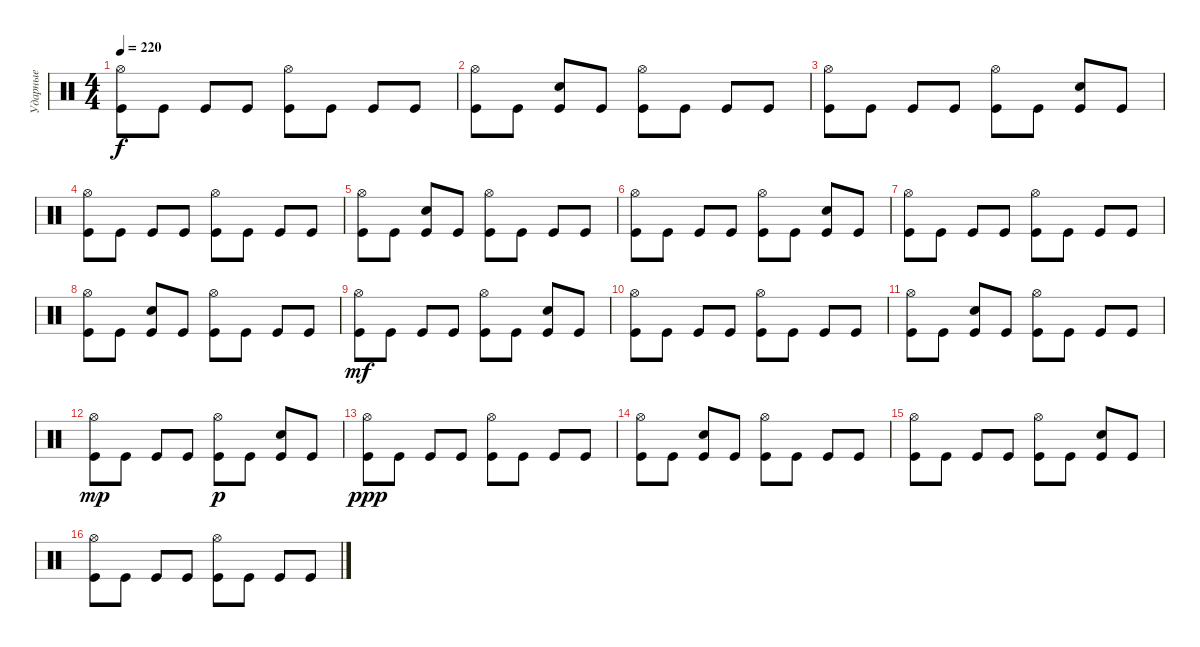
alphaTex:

\track ("Ударные" "Ударные") {instrument percussion}
\staff {score}
\articulation defaults
\ts (4 4)
\tempo 220
\clef neutral
\ks c
("Hi-Hat (open)" "Kick (hit)").8{dy f} "Kick (hit)".8 "Kick (hit)".8 "Kick (hit)".8 ("Hi-Hat (open)" "Kick (hit)").8 "Kick (hit)".8 "Kick (hit)".8 "Kick (hit)".8 |
("Hi-Hat (open)" "Kick (hit)").8 "Kick (hit)".8 ("Electric Snare (hit)" "Kick (hit)").8 "Kick (hit)".8 ("Hi-Hat (open)" "Kick (hit)").8 "Kick (hit)".8 "Kick (hit)".8 "Kick (hit)".8 |
("Hi-Hat (open)" "Kick (hit)").8 "Kick (hit)".8 "Kick (hit)".8 "Kick (hit)".8 ("Hi-Hat (open)" "Kick (hit)").8 "Kick (hit)".8 ("Electric Snare (hit)" "Kick (hit)").8 "Kick (hit)".8 |
("Hi-Hat (open)" "Kick (hit)").8 "Kick (hit)".8 "Kick (hit)".8 "Kick (hit)".8 ("Hi-Hat (open)" "Kick (hit)").8 "Kick (hit)".8 "Kick (hit)".8 "Kick (hit)".8 |
("Hi-Hat (open)" "Kick (hit)").8 "Kick (hit)".8 ("Electric Snare (hit)" "Kick (hit)").8 "Kick (hit)".8 ("Hi-Hat (open)" "Kick (hit)").8 "Kick (hit)".8 "Kick (hit)".8 "Kick (hit)".8 |
("Hi-Hat (open)" "Kick (hit)").8 "Kick (hit)".8 "Kick (hit)".8 "Kick (hit)".8 ("Hi-Hat (open)" "Kick (hit)").8 "Kick (hit)".8 ("Electric Snare (hit)" "Kick (hit)").8 "Kick (hit)".8 |
("Hi-Hat (open)" "Kick (hit)").8 "Kick (hit)".8 "Kick (hit)".8 "Kick (hit)".8 ("Hi-Hat (open)" "Kick (hit)").8 "Kick (hit)".8 "Kick (hit)".8 "Kick (hit)".8 |
("Hi-Hat (open)" "Kick (hit)").8 "Kick (hit)".8 ("Electric Snare (hit)" "Kick (hit)").8 "Kick (hit)".8 ("Hi-Hat (open)" "Kick (hit)").8 "Kick (hit)".8 "Kick (hit)".8 "Kick (hit)".8 |
("Hi-Hat (open)" "Kick (hit)").8{dy mf} "Kick (hit)".8 "Kick (hit)".8 "Kick (hit)".8 ("Hi-Hat (open)" "Kick (hit)").8 "Kick (hit)".8 ("Electric Snare (hit)" "Kick (hit)").8 "Kick (hit)".8 |
("Hi-Hat (open)" "Kick (hit)").8 "Kick (hit)".8 "Kick (hit)".8 "Kick (hit)".8 ("Hi-Hat (open)" "Kick (hit)").8 "Kick (hit)".8 "Kick (hit)".8 "Kick (hit)".8 |
("Hi-Hat (open)" "Kick (hit)").8 "Kick (hit)".8 ("Electric Snare (hit)" "Kick (hit)").8 "Kick (hit)".8 ("Hi-Hat (open)" "Kick (hit)").8 "Kick (hit)".8 "Kick (hit)".8 "Kick (hit)".8 |
("Hi-Hat (open)" "Kick (hit)").8{dy mp} "Kick (hit)".8 "Kick (hit)".8 "Kick (hit)".8 ("Hi-Hat (open)" "Kick (hit)").8{dy p} "Kick (hit)".8 ("Electric Snare (hit)" "Kick (hit)").8 "Kick (hit)".8 |
("Hi-Hat (open)" "Kick (hit)").8{dy ppp} "Kick (hit)".8 "Kick (hit)".8 "Kick (hit)".8 ("Hi-Hat (open)" "Kick (hit)").8 "Kick (hit)".8 "Kick (hit)".8 "Kick (hit)".8 |
("Hi-Hat (open)" "Kick (hit)").8 "Kick (hit)".8 ("Electric Snare (hit)" "Kick (hit)").8 "Kick (hit)".8 ("Hi-Hat (open)" "Kick (hit)").8 "Kick (hit)".8 "Kick (hit)".8 "Kick (hit)".8 |
("Hi-Hat (open)" "Kick (hit)").8 "Kick (hit)".8 "Kick (hit)".8 "Kick (hit)".8 ("Hi-Hat (open)" "Kick (hit)").8 "Kick (hit)".8 ("Electric Snare (hit)" "Kick (hit)").8 "Kick (hit)".8 |
("Hi-Hat (open)" "Kick (hit)").8 "Kick (hit)".8 "Kick (hit)".8 "Kick (hit)".8 ("Hi-Hat (open)" "Kick (hit)").8 "Kick (hit)".8 "Kick (hit)".8 "Kick (hit)".8
